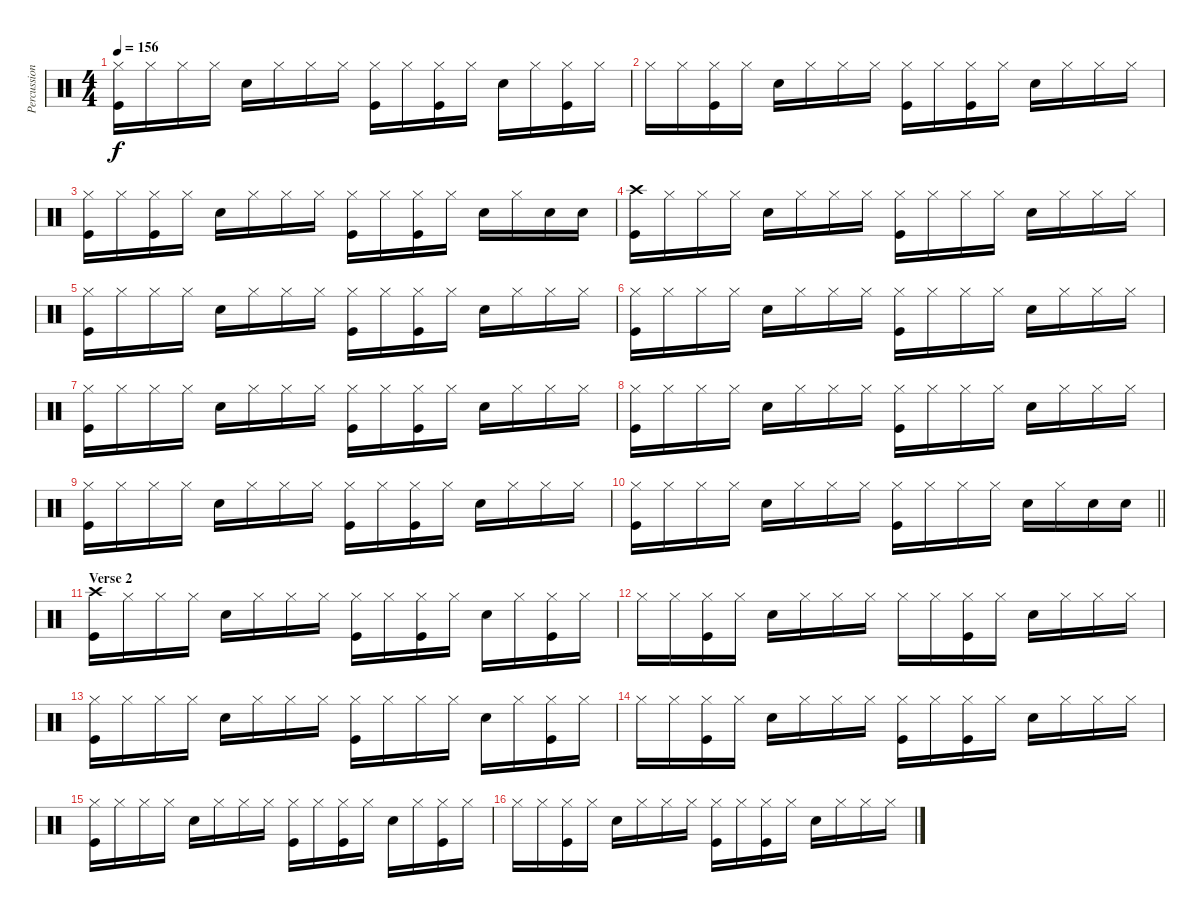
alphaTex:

\track ("Percussion" "Percussion") {instrument percussion}
\staff {score}
\articulation defaults
\ts (4 4)
\tempo 156
\clef neutral
\ks c
("Hi-Hat (closed)" "Kick (hit)").16{dy f} "Hi-Hat (closed)".16 "Hi-Hat (closed)".16 "Hi-Hat (closed)".16 "Snare (hit) 2".16 "Hi-Hat (closed)".16 "Hi-Hat (closed)".16 "Hi-Hat (closed)".16 ("Hi-Hat (closed)" "Kick (hit)").16 "Hi-Hat (closed)".16 ("Hi-Hat (closed)" "Kick (hit)").16 "Hi-Hat (closed)".16 "Snare (hit) 2".16 "Hi-Hat (closed)".16 ("Hi-Hat (closed)" "Kick (hit)").16 "Hi-Hat (closed)".16 |
"Hi-Hat (closed)".16 "Hi-Hat (closed)".16 ("Hi-Hat (closed)" "Kick (hit)").16 "Hi-Hat (closed)".16 "Snare (hit) 2".16 "Hi-Hat (closed)".16 "Hi-Hat (closed)".16 "Hi-Hat (closed)".16 ("Hi-Hat (closed)" "Kick (hit)").16 "Hi-Hat (closed)".16 ("Hi-Hat (closed)" "Kick (hit)").16 "Hi-Hat (closed)".16 "Snare (hit) 2".16 "Hi-Hat (closed)".16 "Hi-Hat (closed)".16 "Hi-Hat (closed)".16 |
("Hi-Hat (closed)" "Kick (hit)").16 "Hi-Hat (closed)".16 ("Hi-Hat (closed)" "Kick (hit)").16 "Hi-Hat (closed)".16 "Snare (hit) 2".16 "Hi-Hat (closed)".16 "Hi-Hat (closed)".16 "Hi-Hat (closed)".16 ("Hi-Hat (closed)" "Kick (hit)").16 "Hi-Hat (closed)".16 ("Hi-Hat (closed)" "Kick (hit)").16 "Hi-Hat (closed)".16 "Snare (hit) 2".16 "Hi-Hat (closed)".16 "Snare (hit) 2".16 "Snare (hit) 2".16 |
("Crash high (hit)" "Kick (hit)").16 "Hi-Hat (closed)".16 "Hi-Hat (closed)".16 "Hi-Hat (closed)".16 "Snare (hit) 2".16 "Hi-Hat (closed)".16 "Hi-Hat (closed)".16 "Hi-Hat (closed)".16 ("Hi-Hat (closed)" "Kick (hit)").16 "Hi-Hat (closed)".16 "Hi-Hat (closed)".16 "Hi-Hat (closed)".16 "Snare (hit) 2".16 "Hi-Hat (closed)".16 "Hi-Hat (closed)".16 "Hi-Hat (closed)".16 |
("Hi-Hat (closed)" "Kick (hit)").16 "Hi-Hat (closed)".16 "Hi-Hat (closed)".16 "Hi-Hat (closed)".16 "Snare (hit) 2".16 "Hi-Hat (closed)".16 "Hi-Hat (closed)".16 "Hi-Hat (closed)".16 ("Hi-Hat (closed)" "Kick (hit)").16 "Hi-Hat (closed)".16 ("Hi-Hat (closed)" "Kick (hit)").16 "Hi-Hat (closed)".16 "Snare (hit) 2".16 "Hi-Hat (closed)".16 "Hi-Hat (closed)".16 "Hi-Hat (closed)".16 |
("Hi-Hat (closed)" "Kick (hit)").16 "Hi-Hat (closed)".16 "Hi-Hat (closed)".16 "Hi-Hat (closed)".16 "Snare (hit) 2".16 "Hi-Hat (closed)".16 "Hi-Hat (closed)".16 "Hi-Hat (closed)".16 ("Hi-Hat (closed)" "Kick (hit)").16 "Hi-Hat (closed)".16 "Hi-Hat (closed)".16 "Hi-Hat (closed)".16 "Snare (hit) 2".16 "Hi-Hat (closed)".16 "Hi-Hat (closed)".16 "Hi-Hat (closed)".16 |
("Hi-Hat (closed)" "Kick (hit)").16 "Hi-Hat (closed)".16 "Hi-Hat (closed)".16 "Hi-Hat (closed)".16 "Snare (hit) 2".16 "Hi-Hat (closed)".16 "Hi-Hat (closed)".16 "Hi-Hat (closed)".16 ("Hi-Hat (closed)" "Kick (hit)").16 "Hi-Hat (closed)".16 ("Hi-Hat (closed)" "Kick (hit)").16 "Hi-Hat (closed)".16 "Snare (hit) 2".16 "Hi-Hat (closed)".16 "Hi-Hat (closed)".16 "Hi-Hat (closed)".16 |
("Hi-Hat (closed)" "Kick (hit)").16 "Hi-Hat (closed)".16 "Hi-Hat (closed)".16 "Hi-Hat (closed)".16 "Snare (hit) 2".16 "Hi-Hat (closed)".16 "Hi-Hat (closed)".16 "Hi-Hat (closed)".16 ("Hi-Hat (closed)" "Kick (hit)").16 "Hi-Hat (closed)".16 "Hi-Hat (closed)".16 "Hi-Hat (closed)".16 "Snare (hit) 2".16 "Hi-Hat (closed)".16 "Hi-Hat (closed)".16 "Hi-Hat (closed)".16 |
("Hi-Hat (closed)" "Kick (hit)").16 "Hi-Hat (closed)".16 "Hi-Hat (closed)".16 "Hi-Hat (closed)".16 "Snare (hit) 2".16 "Hi-Hat (closed)".16 "Hi-Hat (closed)".16 "Hi-Hat (closed)".16 ("Hi-Hat (closed)" "Kick (hit)").16 "Hi-Hat (closed)".16 ("Hi-Hat (closed)" "Kick (hit)").16 "Hi-Hat (closed)".16 "Snare (hit) 2".16 "Hi-Hat (closed)".16 "Hi-Hat (closed)".16 "Hi-Hat (closed)".16 |
\barLineRight lightlight
("Hi-Hat (closed)" "Kick (hit)").16 "Hi-Hat (closed)".16 "Hi-Hat (closed)".16 "Hi-Hat (closed)".16 "Snare (hit) 2".16 "Hi-Hat (closed)".16 "Hi-Hat (closed)".16 "Hi-Hat (closed)".16 ("Hi-Hat (closed)" "Kick (hit)").16 "Hi-Hat (closed)".16 "Hi-Hat (closed)".16 "Hi-Hat (closed)".16 "Snare (hit) 2".16 "Hi-Hat (closed)".16 "Snare (hit) 2".16 "Snare (hit) 2".16 |
\section ("" "Verse 2")
("Crash high (hit)" "Kick (hit)").16 "Hi-Hat (closed)".16 "Hi-Hat (closed)".16 "Hi-Hat (closed)".16 "Snare (hit) 2".16 "Hi-Hat (closed)".16 "Hi-Hat (closed)".16 "Hi-Hat (closed)".16 ("Hi-Hat (closed)" "Kick (hit)").16 "Hi-Hat (closed)".16 ("Hi-Hat (closed)" "Kick (hit)").16 "Hi-Hat (closed)".16 "Snare (hit) 2".16 "Hi-Hat (closed)".16 ("Hi-Hat (closed)" "Kick (hit)").16 "Hi-Hat (closed)".16 |
"Hi-Hat (closed)".16 "Hi-Hat (closed)".16 ("Hi-Hat (closed)" "Kick (hit)").16 "Hi-Hat (closed)".16 "Snare (hit) 2".16 "Hi-Hat (closed)".16 "Hi-Hat (closed)".16 "Hi-Hat (closed)".16 "Hi-Hat (closed)".16 "Hi-Hat (closed)".16 ("Hi-Hat (closed)" "Kick (hit)").16 "Hi-Hat (closed)".16 "Snare (hit) 2".16 "Hi-Hat (closed)".16 "Hi-Hat (closed)".16 "Hi-Hat (closed)".16 |
("Hi-Hat (closed)" "Kick (hit)").16 "Hi-Hat (closed)".16 "Hi-Hat (closed)".16 "Hi-Hat (closed)".16 "Snare (hit) 2".16 "Hi-Hat (closed)".16 "Hi-Hat (closed)".16 "Hi-Hat (closed)".16 ("Hi-Hat (closed)" "Kick (hit)").16 "Hi-Hat (closed)".16 "Hi-Hat (closed)".16 "Hi-Hat (closed)".16 "Snare (hit) 2".16 "Hi-Hat (closed)".16 ("Hi-Hat (closed)" "Kick (hit)").16 "Hi-Hat (closed)".16 |
"Hi-Hat (closed)".16 "Hi-Hat (closed)".16 ("Hi-Hat (closed)" "Kick (hit)").16 "Hi-Hat (closed)".16 "Snare (hit) 2".16 "Hi-Hat (closed)".16 "Hi-Hat (closed)".16 "Hi-Hat (closed)".16 ("Hi-Hat (closed)" "Kick (hit)").16 "Hi-Hat (closed)".16 ("Hi-Hat (closed)" "Kick (hit)").16 "Hi-Hat (closed)".16 "Snare (hit) 2".16 "Hi-Hat (closed)".16 "Hi-Hat (closed)".16 "Hi-Hat (closed)".16 |
("Hi-Hat (closed)" "Kick (hit)").16 "Hi-Hat (closed)".16 "Hi-Hat (closed)".16 "Hi-Hat (closed)".16 "Snare (hit) 2".16 "Hi-Hat (closed)".16 "Hi-Hat (closed)".16 "Hi-Hat (closed)".16 ("Hi-Hat (closed)" "Kick (hit)").16 "Hi-Hat (closed)".16 ("Hi-Hat (closed)" "Kick (hit)").16 "Hi-Hat (closed)".16 "Snare (hit) 2".16 "Hi-Hat (closed)".16 ("Hi-Hat (closed)" "Kick (hit)").16 "Hi-Hat (closed)".16 |
"Hi-Hat (closed)".16 "Hi-Hat (closed)".16 ("Hi-Hat (closed)" "Kick (hit)").16 "Hi-Hat (closed)".16 "Snare (hit) 2".16 "Hi-Hat (closed)".16 "Hi-Hat (closed)".16 "Hi-Hat (closed)".16 ("Hi-Hat (closed)" "Kick (hit)").16 "Hi-Hat (closed)".16 ("Hi-Hat (closed)" "Kick (hit)").16 "Hi-Hat (closed)".16 "Snare (hit) 2".16 "Hi-Hat (closed)".16 "Hi-Hat (closed)".16 "Hi-Hat (closed)".16
